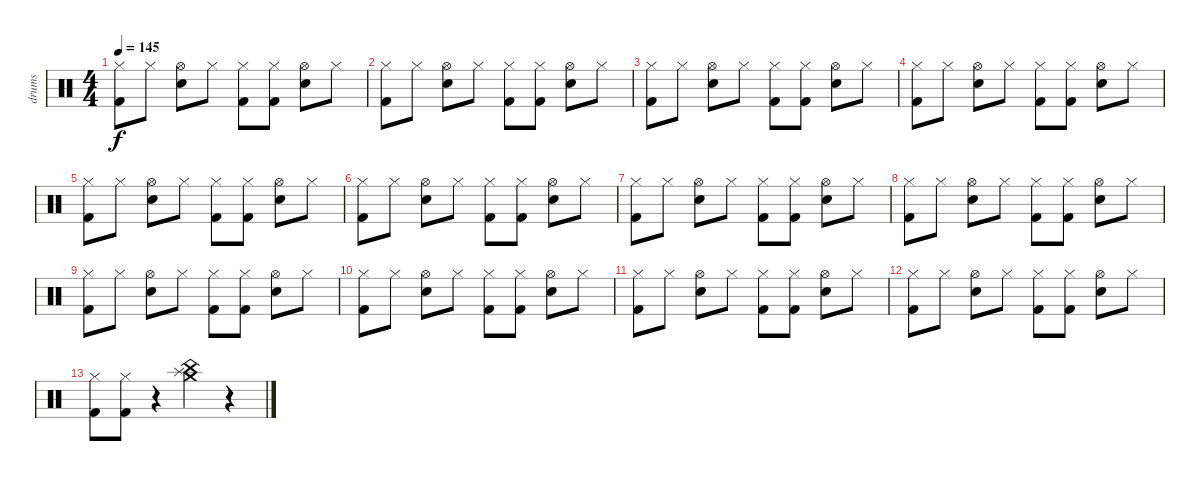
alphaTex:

\track ("drums" "drums") {instrument percussion}
\staff {score}
\articulation defaults
\ts (4 4)
\tempo 145
\clef neutral
\ks c
("Hi-Hat (closed)" "Kick (hit) 2").8{dy f} "Hi-Hat (closed)".8 ("Hi-Hat (open)" "Snare (hit) 2").8 "Hi-Hat (closed)".8 ("Hi-Hat (closed)" "Kick (hit) 2").8 ("Hi-Hat (closed)" "Kick (hit) 2").8 ("Hi-Hat (open)" "Snare (hit) 2").8 "Hi-Hat (closed)".8 |
("Hi-Hat (closed)" "Kick (hit) 2").8 "Hi-Hat (closed)".8 ("Hi-Hat (open)" "Snare (hit) 2").8 "Hi-Hat (closed)".8 ("Hi-Hat (closed)" "Kick (hit) 2").8 ("Hi-Hat (closed)" "Kick (hit) 2").8 ("Hi-Hat (open)" "Snare (hit) 2").8 "Hi-Hat (closed)".8 |
("Hi-Hat (closed)" "Kick (hit) 2").8 "Hi-Hat (closed)".8 ("Hi-Hat (open)" "Snare (hit) 2").8 "Hi-Hat (closed)".8 ("Hi-Hat (closed)" "Kick (hit) 2").8 ("Hi-Hat (closed)" "Kick (hit) 2").8 ("Hi-Hat (open)" "Snare (hit) 2").8 "Hi-Hat (closed)".8 |
("Hi-Hat (closed)" "Kick (hit) 2").8 "Hi-Hat (closed)".8 ("Hi-Hat (open)" "Snare (hit) 2").8 "Hi-Hat (closed)".8 ("Hi-Hat (closed)" "Kick (hit) 2").8 ("Hi-Hat (closed)" "Kick (hit) 2").8 ("Hi-Hat (open)" "Snare (hit) 2").8 "Hi-Hat (closed)".8 |
("Hi-Hat (closed)" "Kick (hit) 2").8 "Hi-Hat (closed)".8 ("Hi-Hat (open)" "Snare (hit) 2").8 "Hi-Hat (closed)".8 ("Hi-Hat (closed)" "Kick (hit) 2").8 ("Hi-Hat (closed)" "Kick (hit) 2").8 ("Hi-Hat (open)" "Snare (hit) 2").8 "Hi-Hat (closed)".8 |
("Hi-Hat (closed)" "Kick (hit) 2").8 "Hi-Hat (closed)".8 ("Hi-Hat (open)" "Snare (hit) 2").8 "Hi-Hat (closed)".8 ("Hi-Hat (closed)" "Kick (hit) 2").8 ("Hi-Hat (closed)" "Kick (hit) 2").8 ("Hi-Hat (open)" "Snare (hit) 2").8 "Hi-Hat (closed)".8 |
("Hi-Hat (closed)" "Kick (hit) 2").8 "Hi-Hat (closed)".8 ("Hi-Hat (open)" "Snare (hit) 2").8 "Hi-Hat (closed)".8 ("Hi-Hat (closed)" "Kick (hit) 2").8 ("Hi-Hat (closed)" "Kick (hit) 2").8 ("Hi-Hat (open)" "Snare (hit) 2").8 "Hi-Hat (closed)".8 |
("Hi-Hat (closed)" "Kick (hit) 2").8 "Hi-Hat (closed)".8 ("Hi-Hat (open)" "Snare (hit) 2").8 "Hi-Hat (closed)".8 ("Hi-Hat (closed)" "Kick (hit) 2").8 ("Hi-Hat (closed)" "Kick (hit) 2").8 ("Hi-Hat (open)" "Snare (hit) 2").8 "Hi-Hat (closed)".8 |
("Hi-Hat (closed)" "Kick (hit) 2").8 "Hi-Hat (closed)".8 ("Hi-Hat (open)" "Snare (hit) 2").8 "Hi-Hat (closed)".8 ("Hi-Hat (closed)" "Kick (hit) 2").8 ("Hi-Hat (closed)" "Kick (hit) 2").8 ("Hi-Hat (open)" "Snare (hit) 2").8 "Hi-Hat (closed)".8 |
("Hi-Hat (closed)" "Kick (hit) 2").8 "Hi-Hat (closed)".8 ("Hi-Hat (open)" "Snare (hit) 2").8 "Hi-Hat (closed)".8 ("Hi-Hat (closed)" "Kick (hit) 2").8 ("Hi-Hat (closed)" "Kick (hit) 2").8 ("Hi-Hat (open)" "Snare (hit) 2").8 "Hi-Hat (closed)".8 |
("Hi-Hat (closed)" "Kick (hit) 2").8 "Hi-Hat (closed)".8 ("Hi-Hat (open)" "Snare (hit) 2").8 "Hi-Hat (closed)".8 ("Hi-Hat (closed)" "Kick (hit) 2").8 ("Hi-Hat (closed)" "Kick (hit) 2").8 ("Hi-Hat (open)" "Snare (hit) 2").8 "Hi-Hat (closed)".8 |
("Hi-Hat (closed)" "Kick (hit) 2").8 "Hi-Hat (closed)".8 ("Hi-Hat (open)" "Snare (hit) 2").8 "Hi-Hat (closed)".8 ("Hi-Hat (closed)" "Kick (hit) 2").8 ("Hi-Hat (closed)" "Kick (hit) 2").8 ("Hi-Hat (open)" "Snare (hit) 2").8 "Hi-Hat (closed)".8 |
("Hi-Hat (closed)" "Kick (hit) 2").8 ("Hi-Hat (closed)" "Kick (hit) 2").8 r.4 ("Crash medium (hit)" "Splash (hit)" "China (hit)").4 r.4
